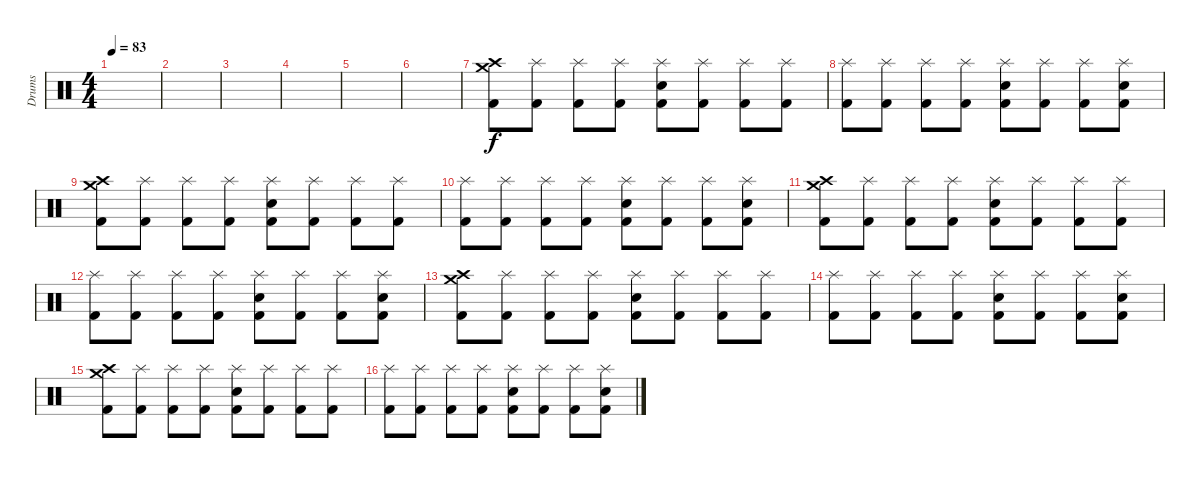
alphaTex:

\track ("Drums" "Drums") {instrument percussion}
\staff {score}
\articulation defaults
\ts (4 4)
\tempo 83
\clef neutral
\ks c
|
|
|
|
|
|
("Crash high (hit)" "Crash medium (hit)" "Kick (hit) 2").8 ("Splash (hit)" "Kick (hit) 2").8 ("Splash (hit)" "Kick (hit) 2").8 ("Splash (hit)" "Kick (hit) 2").8 ("Splash (hit)" "Snare (hit) 2" "Kick (hit) 2").8 ("Splash (hit)" "Kick (hit) 2").8 ("Splash (hit)" "Kick (hit) 2").8 ("Splash (hit)" "Kick (hit) 2").8 |
("Splash (hit)" "Kick (hit) 2").8 ("Splash (hit)" "Kick (hit) 2").8 ("Splash (hit)" "Kick (hit) 2").8 ("Splash (hit)" "Kick (hit) 2").8 ("Splash (hit)" "Snare (hit) 2" "Kick (hit) 2").8 ("Splash (hit)" "Kick (hit) 2").8 ("Splash (hit)" "Kick (hit) 2").8 ("Splash (hit)" "Snare (hit) 2" "Kick (hit) 2").8 |
("Crash high (hit)" "Crash medium (hit)" "Kick (hit) 2").8 ("Splash (hit)" "Kick (hit) 2").8 ("Splash (hit)" "Kick (hit) 2").8 ("Splash (hit)" "Kick (hit) 2").8 ("Splash (hit)" "Snare (hit) 2" "Kick (hit) 2").8 ("Splash (hit)" "Kick (hit) 2").8 ("Splash (hit)" "Kick (hit) 2").8 ("Splash (hit)" "Kick (hit) 2").8 |
("Splash (hit)" "Kick (hit) 2").8 ("Splash (hit)" "Kick (hit) 2").8 ("Splash (hit)" "Kick (hit) 2").8 ("Splash (hit)" "Kick (hit) 2").8 ("Splash (hit)" "Snare (hit) 2" "Kick (hit) 2").8 ("Splash (hit)" "Kick (hit) 2").8 ("Splash (hit)" "Kick (hit) 2").8 ("Splash (hit)" "Snare (hit) 2" "Kick (hit) 2").8 |
("Crash high (hit)" "Crash medium (hit)" "Kick (hit) 2").8 ("Splash (hit)" "Kick (hit) 2").8 ("Splash (hit)" "Kick (hit) 2").8 ("Splash (hit)" "Kick (hit) 2").8 ("Splash (hit)" "Snare (hit) 2" "Kick (hit) 2").8 ("Splash (hit)" "Kick (hit) 2").8 ("Splash (hit)" "Kick (hit) 2").8 ("Splash (hit)" "Kick (hit) 2").8 |
("Splash (hit)" "Kick (hit) 2").8 ("Splash (hit)" "Kick (hit) 2").8 ("Splash (hit)" "Kick (hit) 2").8 ("Splash (hit)" "Kick (hit) 2").8 ("Splash (hit)" "Snare (hit) 2" "Kick (hit) 2").8 ("Splash (hit)" "Kick (hit) 2").8 ("Splash (hit)" "Kick (hit) 2").8 ("Splash (hit)" "Snare (hit) 2" "Kick (hit) 2").8 |
("Crash high (hit)" "Crash medium (hit)" "Kick (hit) 2").8 ("Splash (hit)" "Kick (hit) 2").8 ("Splash (hit)" "Kick (hit) 2").8 ("Splash (hit)" "Kick (hit) 2").8 ("Splash (hit)" "Snare (hit) 2" "Kick (hit) 2").8 ("Splash (hit)" "Kick (hit) 2").8 ("Splash (hit)" "Kick (hit) 2").8 ("Splash (hit)" "Kick (hit) 2").8 |
("Splash (hit)" "Kick (hit) 2").8 ("Splash (hit)" "Kick (hit) 2").8 ("Splash (hit)" "Kick (hit) 2").8 ("Splash (hit)" "Kick (hit) 2").8 ("Splash (hit)" "Snare (hit) 2" "Kick (hit) 2").8 ("Splash (hit)" "Kick (hit) 2").8 ("Splash (hit)" "Kick (hit) 2").8 ("Splash (hit)" "Snare (hit) 2" "Kick (hit) 2").8 |
("Crash high (hit)" "Crash medium (hit)" "Kick (hit) 2").8 ("Splash (hit)" "Kick (hit) 2").8 ("Splash (hit)" "Kick (hit) 2").8 ("Splash (hit)" "Kick (hit) 2").8 ("Splash (hit)" "Snare (hit) 2" "Kick (hit) 2").8 ("Splash (hit)" "Kick (hit) 2").8 ("Splash (hit)" "Kick (hit) 2").8 ("Splash (hit)" "Kick (hit) 2").8 |
("Splash (hit)" "Kick (hit) 2").8 ("Splash (hit)" "Kick (hit) 2").8 ("Splash (hit)" "Kick (hit) 2").8 ("Splash (hit)" "Kick (hit) 2").8 ("Splash (hit)" "Snare (hit) 2" "Kick (hit) 2").8 ("Splash (hit)" "Kick (hit) 2").8 ("Splash (hit)" "Kick (hit) 2").8 ("Splash (hit)" "Snare (hit) 2" "Kick (hit) 2").8
